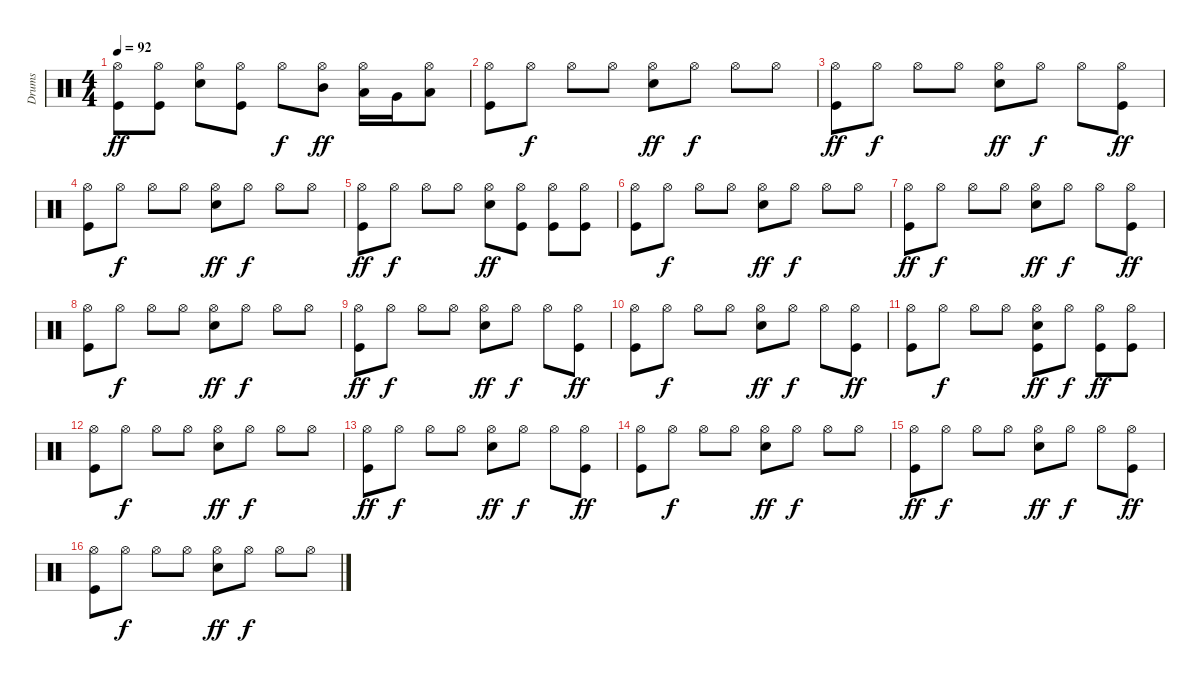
\track ("Drums" "Drums") {instrument percussion}
\staff {score}
\articulation defaults
\ts (4 4)
\tempo 92
\clef neutral
\ks c
("Hi-Hat (open)" "Kick (hit)").8{dy ff} ("Hi-Hat (open)" "Kick (hit)").8 ("Hi-Hat (open)" "Snare (hit) 2").8 ("Hi-Hat (open)" "Kick (hit)").8 "Hi-Hat (open)".8{dy f} ("Hi-Hat (open)" "Mid Tom (hit)").8{dy ff} ("Hi-Hat (open)" "Low Tom (hit)").16 "Very Low Tom (hit)".16 ("Hi-Hat (open)" "Low Floor Tom (hit)").8 |
("Hi-Hat (open)" "Kick (hit)").8 "Hi-Hat (open)".8{dy f} "Hi-Hat (open)".8 "Hi-Hat (open)".8 ("Hi-Hat (open)" "Snare (hit) 2").8{dy ff} "Hi-Hat (open)".8{dy f} "Hi-Hat (open)".8 "Hi-Hat (open)".8 |
("Hi-Hat (open)" "Kick (hit)").8{dy ff} "Hi-Hat (open)".8{dy f} "Hi-Hat (open)".8 "Hi-Hat (open)".8 ("Hi-Hat (open)" "Snare (hit) 2").8{dy ff} "Hi-Hat (open)".8{dy f} "Hi-Hat (open)".8 ("Hi-Hat (open)" "Kick (hit)").8{dy ff} |
("Hi-Hat (open)" "Kick (hit)").8 "Hi-Hat (open)".8{dy f} "Hi-Hat (open)".8 "Hi-Hat (open)".8 ("Hi-Hat (open)" "Snare (hit) 2").8{dy ff} "Hi-Hat (open)".8{dy f} "Hi-Hat (open)".8 "Hi-Hat (open)".8 |
("Hi-Hat (open)" "Kick (hit)").8{dy ff} "Hi-Hat (open)".8{dy f} "Hi-Hat (open)".8 "Hi-Hat (open)".8 ("Hi-Hat (open)" "Snare (hit) 2").8{dy ff} ("Hi-Hat (open)" "Kick (hit)").8 ("Hi-Hat (open)" "Kick (hit)").8 ("Hi-Hat (open)" "Kick (hit)").8 |
("Hi-Hat (open)" "Kick (hit)").8 "Hi-Hat (open)".8{dy f} "Hi-Hat (open)".8 "Hi-Hat (open)".8 ("Hi-Hat (open)" "Snare (hit) 2").8{dy ff} "Hi-Hat (open)".8{dy f} "Hi-Hat (open)".8 "Hi-Hat (open)".8 |
("Hi-Hat (open)" "Kick (hit)").8{dy ff} "Hi-Hat (open)".8{dy f} "Hi-Hat (open)".8 "Hi-Hat (open)".8 ("Hi-Hat (open)" "Snare (hit) 2").8{dy ff} "Hi-Hat (open)".8{dy f} "Hi-Hat (open)".8 ("Hi-Hat (open)" "Kick (hit)").8{dy ff} |
("Hi-Hat (open)" "Kick (hit)").8 "Hi-Hat (open)".8{dy f} "Hi-Hat (open)".8 "Hi-Hat (open)".8 ("Hi-Hat (open)" "Snare (hit) 2").8{dy ff} "Hi-Hat (open)".8{dy f} "Hi-Hat (open)".8 "Hi-Hat (open)".8 |
("Hi-Hat (open)" "Kick (hit)").8{dy ff} "Hi-Hat (open)".8{dy f} "Hi-Hat (open)".8 "Hi-Hat (open)".8 ("Hi-Hat (open)" "Snare (hit) 2").8{dy ff} "Hi-Hat (open)".8{dy f} "Hi-Hat (open)".8 ("Hi-Hat (open)" "Kick (hit)").8{dy ff} |
("Hi-Hat (open)" "Kick (hit)").8 "Hi-Hat (open)".8{dy f} "Hi-Hat (open)".8 "Hi-Hat (open)".8 ("Hi-Hat (open)" "Snare (hit) 2").8{dy ff} "Hi-Hat (open)".8{dy f} "Hi-Hat (open)".8 ("Hi-Hat (open)" "Kick (hit)").8{dy ff} |
("Hi-Hat (open)" "Kick (hit)").8 "Hi-Hat (open)".8{dy f} "Hi-Hat (open)".8 "Hi-Hat (open)".8 ("Hi-Hat (open)" "Snare (hit) 2" "Kick (hit)").8{dy ff} "Hi-Hat (open)".8{dy f} ("Hi-Hat (open)" "Kick (hit)").8{dy ff} ("Hi-Hat (open)" "Kick (hit)").8 |
("Hi-Hat (open)" "Kick (hit)").8 "Hi-Hat (open)".8{dy f} "Hi-Hat (open)".8 "Hi-Hat (open)".8 ("Hi-Hat (open)" "Snare (hit) 2").8{dy ff} "Hi-Hat (open)".8{dy f} "Hi-Hat (open)".8 "Hi-Hat (open)".8 |
("Hi-Hat (open)" "Kick (hit)").8{dy ff} "Hi-Hat (open)".8{dy f} "Hi-Hat (open)".8 "Hi-Hat (open)".8 ("Hi-Hat (open)" "Snare (hit) 2").8{dy ff} "Hi-Hat (open)".8{dy f} "Hi-Hat (open)".8 ("Hi-Hat (open)" "Kick (hit)").8{dy ff} |
("Hi-Hat (open)" "Kick (hit)").8 "Hi-Hat (open)".8{dy f} "Hi-Hat (open)".8 "Hi-Hat (open)".8 ("Hi-Hat (open)" "Snare (hit) 2").8{dy ff} "Hi-Hat (open)".8{dy f} "Hi-Hat (open)".8 "Hi-Hat (open)".8 |
("Hi-Hat (open)" "Kick (hit)").8{dy ff} "Hi-Hat (open)".8{dy f} "Hi-Hat (open)".8 "Hi-Hat (open)".8 ("Hi-Hat (open)" "Snare (hit) 2").8{dy ff} "Hi-Hat (open)".8{dy f} "Hi-Hat (open)".8 ("Hi-Hat (open)" "Kick (hit)").8{dy ff} |
("Hi-Hat (open)" "Kick (hit)").8 "Hi-Hat (open)".8{dy f} "Hi-Hat (open)".8 "Hi-Hat (open)".8 ("Hi-Hat (open)" "Snare (hit) 2").8{dy ff} "Hi-Hat (open)".8{dy f} "Hi-Hat (open)".8 "Hi-Hat (open)".8
